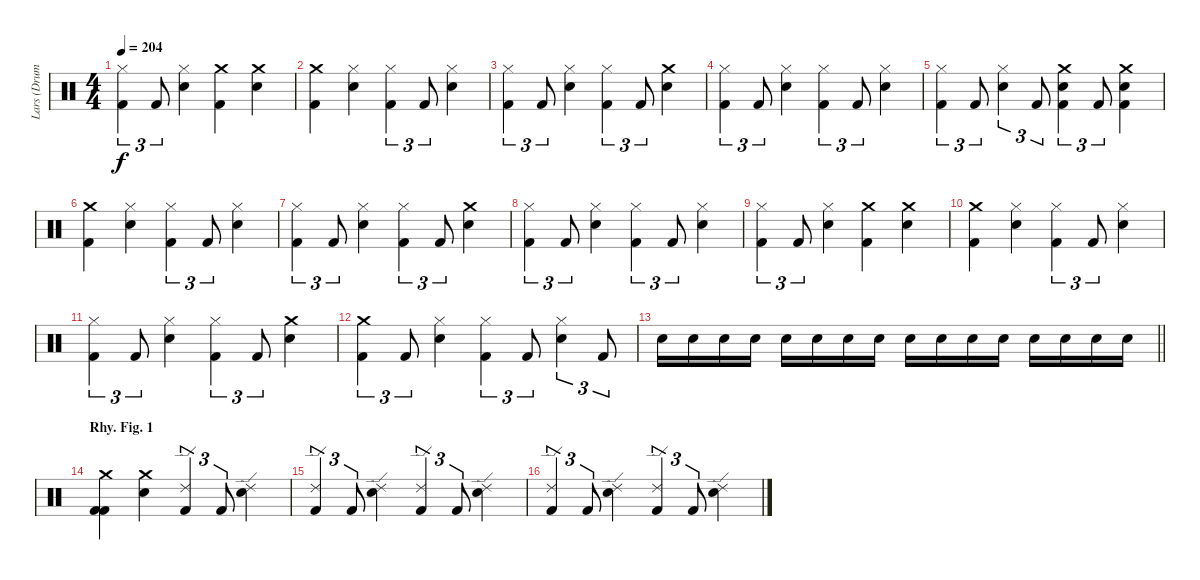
\track ("Lars (Drums)" "Lars (Drum") {instrument percussion}
\staff {score}
\articulation defaults
\ts (4 4)
\tempo 204
\clef neutral
\ks c
("Hi-Hat (closed)" "Kick (hit) 2").4{tu (3 2) dy f} "Kick (hit) 2".8{tu (3 2)} ("Snare (hit) 2" "Hi-Hat (closed)").4 ("Crash medium (hit)" "Kick (hit) 2").4 ("Crash medium (hit)" "Snare (hit) 2").4 |
("Kick (hit) 2" "Crash medium (hit)").4 ("Hi-Hat (closed)" "Snare (hit) 2").4 ("Hi-Hat (closed)" "Kick (hit) 2").4{tu (3 2)} "Kick (hit) 2".8{tu (3 2)} ("Snare (hit) 2" "Hi-Hat (closed)").4 |
("Hi-Hat (closed)" "Kick (hit) 2").4{tu (3 2)} "Kick (hit) 2".8{tu (3 2)} ("Snare (hit) 2" "Hi-Hat (closed)").4 ("Hi-Hat (closed)" "Kick (hit) 2").4{tu (3 2)} "Kick (hit) 2".8{tu (3 2)} ("Crash medium (hit)" "Snare (hit) 2").4 |
("Hi-Hat (closed)" "Kick (hit) 2").4{tu (3 2)} "Kick (hit) 2".8{tu (3 2)} ("Snare (hit) 2" "Hi-Hat (closed)").4 ("Hi-Hat (closed)" "Kick (hit) 2").4{tu (3 2)} "Kick (hit) 2".8{tu (3 2)} ("Snare (hit) 2" "Hi-Hat (closed)").4 |
("Hi-Hat (closed)" "Kick (hit) 2").4{tu (3 2)} "Kick (hit) 2".8{tu (3 2)} ("Snare (hit) 2" "Hi-Hat (closed)").4{tu (3 2)} "Kick (hit) 2".8{tu (3 2)} ("Snare (hit) 2" "Crash medium (hit)" "Kick (hit) 2").4{tu (3 2)} "Kick (hit) 2".8{tu (3 2)} ("Kick (hit) 2" "Crash medium (hit)" "Snare (hit) 2").4 |
("Kick (hit) 2" "Crash medium (hit)").4 ("Hi-Hat (closed)" "Snare (hit) 2").4 ("Hi-Hat (closed)" "Kick (hit) 2").4{tu (3 2)} "Kick (hit) 2".8{tu (3 2)} ("Snare (hit) 2" "Hi-Hat (closed)").4 |
("Hi-Hat (closed)" "Kick (hit) 2").4{tu (3 2)} "Kick (hit) 2".8{tu (3 2)} ("Snare (hit) 2" "Hi-Hat (closed)").4 ("Hi-Hat (closed)" "Kick (hit) 2").4{tu (3 2)} "Kick (hit) 2".8{tu (3 2)} ("Crash medium (hit)" "Snare (hit) 2").4 |
("Hi-Hat (closed)" "Kick (hit) 2").4{tu (3 2)} "Kick (hit) 2".8{tu (3 2)} ("Snare (hit) 2" "Hi-Hat (closed)").4 ("Hi-Hat (closed)" "Kick (hit) 2").4{tu (3 2)} "Kick (hit) 2".8{tu (3 2)} ("Snare (hit) 2" "Hi-Hat (closed)").4 |
("Hi-Hat (closed)" "Kick (hit) 2").4{tu (3 2)} "Kick (hit) 2".8{tu (3 2)} ("Snare (hit) 2" "Hi-Hat (closed)").4 ("Crash medium (hit)" "Kick (hit) 2").4 ("Crash medium (hit)" "Snare (hit) 2").4 |
("Kick (hit) 2" "Crash medium (hit)").4 ("Hi-Hat (closed)" "Snare (hit) 2").4 ("Hi-Hat (closed)" "Kick (hit) 2").4{tu (3 2)} "Kick (hit) 2".8{tu (3 2)} ("Snare (hit) 2" "Hi-Hat (closed)").4 |
("Hi-Hat (closed)" "Kick (hit) 2").4{tu (3 2)} "Kick (hit) 2".8{tu (3 2)} ("Snare (hit) 2" "Hi-Hat (closed)").4 ("Hi-Hat (closed)" "Kick (hit) 2").4{tu (3 2)} "Kick (hit) 2".8{tu (3 2)} ("Crash medium (hit)" "Snare (hit) 2").4 |
("Crash medium (hit)" "Kick (hit) 2").4{tu (3 2)} "Kick (hit) 2".8{tu (3 2)} ("Snare (hit) 2" "Hi-Hat (closed)").4 ("Hi-Hat (closed)" "Kick (hit) 2").4{tu (3 2)} "Kick (hit) 2".8{tu (3 2)} ("Snare (hit) 2" "Hi-Hat (closed)").4{tu (3 2)} "Kick (hit) 2".8{tu (3 2)} |
\barLineRight lightlight "Snare (hit) 2".16 "Snare (hit) 2".16 "Snare (hit) 2".16 "Snare (hit) 2".16 "Snare (hit) 2".16 "Snare (hit) 2".16 "Snare (hit) 2".16 "Snare (hit) 2".16 "Snare (hit) 2".16 "Snare (hit) 2".16 "Snare (hit) 2".16 "Snare (hit) 2".16 "Snare (hit) 2".16 "Snare (hit) 2".16 "Snare (hit) 2".16 "Snare (hit) 2".16
|
\section ("" "Rhy. Fig. 1")
("Kick (hit) 2" "Kick (hit) 2" "Crash medium (hit)").4 ("Snare (hit) 2" "Crash medium (hit)").4 ("Kick (hit) 2" "Ride (edge) 2").4{tu (3 2)} "Kick (hit) 2".8{tu (3 2)} ("Snare (hit) 2" "Ride (edge) 2").4 |
("Ride (edge) 2" "Kick (hit) 2").4{tu (3 2)} "Kick (hit) 2".8{tu (3 2)} ("Snare (hit) 2" "Ride (edge) 2").4 ("Ride (edge) 2" "Kick (hit) 2").4{tu (3 2)} "Kick (hit) 2".8{tu (3 2)} ("Snare (hit) 2" "Ride (edge) 2").4 |
("Ride (edge) 2" "Kick (hit) 2").4{tu (3 2)} "Kick (hit) 2".8{tu (3 2)} ("Snare (hit) 2" "Ride (edge) 2").4 ("Ride (edge) 2" "Kick (hit) 2").4{tu (3 2)} "Kick (hit) 2".8{tu (3 2)} ("Snare (hit) 2" "Ride (edge) 2").4
